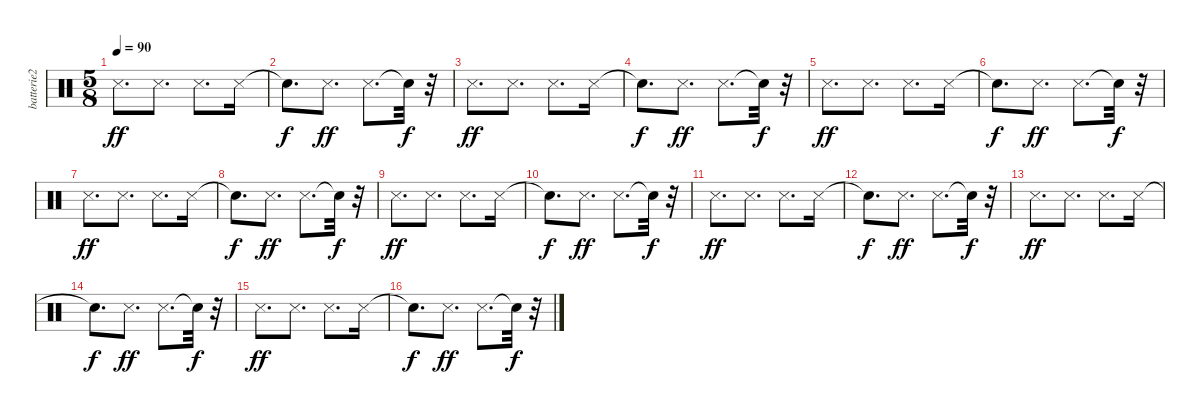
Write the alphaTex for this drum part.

\track ("batterie2" "batterie2") {instrument percussion}
\staff {score}
\articulation defaults
\ts (5 8)
\tempo 90
\clef neutral
\ks c "Snare (side stick) 3".8{d dy ff} "Snare (side stick) 3".8{d} "Snare (side stick) 3".8{d} "Snare (side stick) 3".16
|
"Snare (hit)"{t}.8{d dy f} "Snare (side stick) 3".8{d dy ff} "Snare (side stick) 3".8{d} "Snare (hit)"{t}.32{dy f} r.32 |
"Snare (side stick) 3".8{d dy ff} "Snare (side stick) 3".8{d} "Snare (side stick) 3".8{d} "Snare (side stick) 3".16 |
"Snare (hit)"{t}.8{d dy f} "Snare (side stick) 3".8{d dy ff} "Snare (side stick) 3".8{d} "Snare (hit)"{t}.32{dy f} r.32 |
"Snare (side stick) 3".8{d dy ff} "Snare (side stick) 3".8{d} "Snare (side stick) 3".8{d} "Snare (side stick) 3".16 |
"Snare (hit)"{t}.8{d dy f} "Snare (side stick) 3".8{d dy ff} "Snare (side stick) 3".8{d} "Snare (hit)"{t}.32{dy f} r.32 |
"Snare (side stick) 3".8{d dy ff} "Snare (side stick) 3".8{d} "Snare (side stick) 3".8{d} "Snare (side stick) 3".16 |
"Snare (hit)"{t}.8{d dy f} "Snare (side stick) 3".8{d dy ff} "Snare (side stick) 3".8{d} "Snare (hit)"{t}.32{dy f} r.32 |
"Snare (side stick) 3".8{d dy ff} "Snare (side stick) 3".8{d} "Snare (side stick) 3".8{d} "Snare (side stick) 3".16 |
"Snare (hit)"{t}.8{d dy f} "Snare (side stick) 3".8{d dy ff} "Snare (side stick) 3".8{d} "Snare (hit)"{t}.32{dy f} r.32 |
"Snare (side stick) 3".8{d dy ff} "Snare (side stick) 3".8{d} "Snare (side stick) 3".8{d} "Snare (side stick) 3".16 |
"Snare (hit)"{t}.8{d dy f} "Snare (side stick) 3".8{d dy ff} "Snare (side stick) 3".8{d} "Snare (hit)"{t}.32{dy f} r.32 |
"Snare (side stick) 3".8{d dy ff} "Snare (side stick) 3".8{d} "Snare (side stick) 3".8{d} "Snare (side stick) 3".16 |
"Snare (hit)"{t}.8{d dy f} "Snare (side stick) 3".8{d dy ff} "Snare (side stick) 3".8{d} "Snare (hit)"{t}.32{dy f} r.32 |
"Snare (side stick) 3".8{d dy ff} "Snare (side stick) 3".8{d} "Snare (side stick) 3".8{d} "Snare (side stick) 3".16 |
"Snare (hit)"{t}.8{d dy f} "Snare (side stick) 3".8{d dy ff} "Snare (side stick) 3".8{d} "Snare (hit)"{t}.32{dy f} r.32
